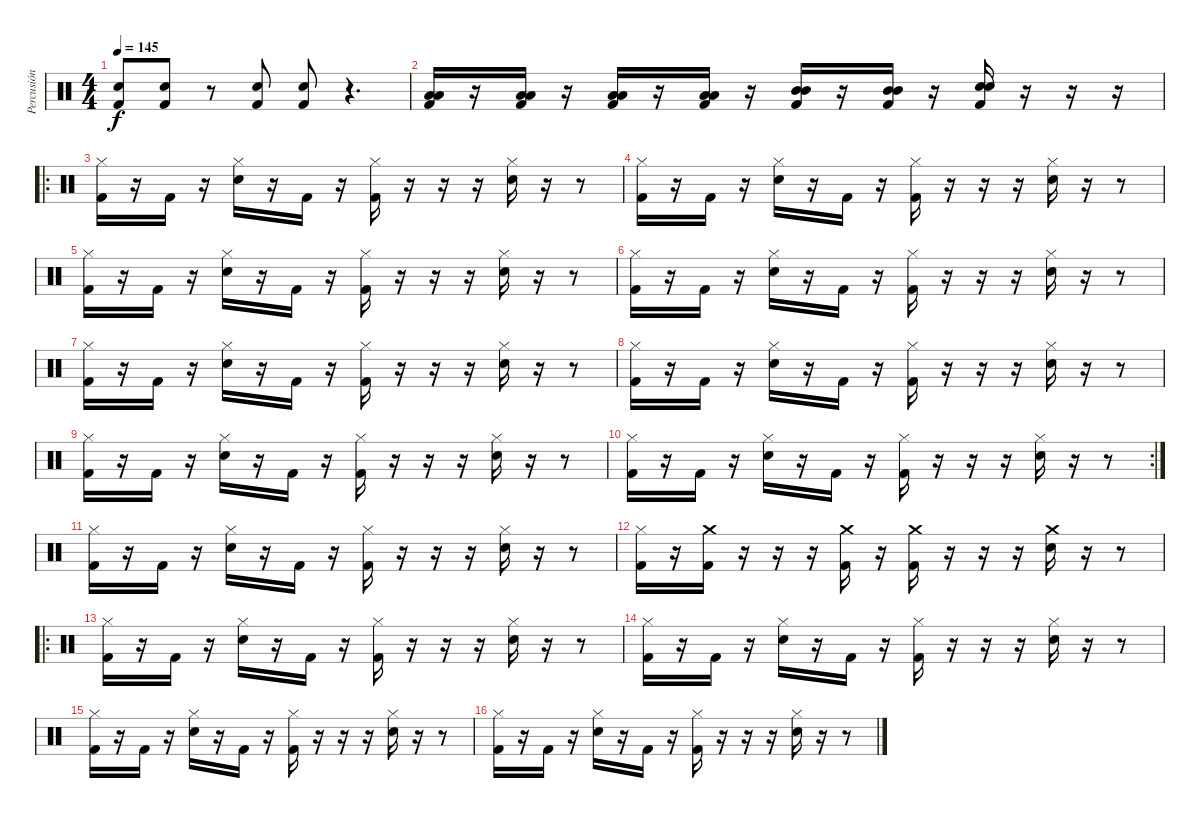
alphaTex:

\track ("Percusión" "Percusión") {solo instrument percussion}
\staff {score}
\articulation defaults
\ts (4 4)
\tempo 145
\clef neutral
\ks c
("Kick (hit) 2" "Electric Snare (hit)").8{dy f} ("Kick (hit) 2" "Electric Snare (hit)").8 r.8 ("Kick (hit) 2" "Electric Snare (hit)").8 ("Kick (hit) 2" "Electric Snare (hit)").8 r.4{d} |
("Kick (hit) 2" "Low Floor Tom (hit)" "Low Floor Tom (hit)").16 r.16 ("Kick (hit) 2" "Low Floor Tom (hit)" "Low Floor Tom (hit)").16 r.16 ("Kick (hit) 2" "Low Tom (hit)" "Low Tom (hit)").16 r.16 ("Kick (hit) 2" "Low Tom (hit)" "Low Tom (hit)").16 r.16 ("Kick (hit) 2" "Mid Tom (hit)" "Mid Tom (hit)").16 r.16 ("Kick (hit) 2" "Mid Tom (hit)" "Mid Tom (hit)").16 r.16 ("Kick (hit) 2" "Electric Snare (hit)" "Electric Snare (hit)").16 r.16 r.16 r.16 |
\ro
("Kick (hit) 2" "Hi-Hat (closed)").16 r.16 "Kick (hit) 2".16 r.16 ("Electric Snare (hit)" "Hi-Hat (closed)").16 r.16 "Kick (hit) 2".16 r.16 ("Kick (hit) 2" "Hi-Hat (closed)").16 r.16 r.16 r.16 ("Electric Snare (hit)" "Hi-Hat (closed)").16 r.16 r.8 |
("Kick (hit) 2" "Hi-Hat (closed)").16 r.16 "Kick (hit) 2".16 r.16 ("Electric Snare (hit)" "Hi-Hat (closed)").16 r.16 "Kick (hit) 2".16 r.16 ("Kick (hit) 2" "Hi-Hat (closed)").16 r.16 r.16 r.16 ("Electric Snare (hit)" "Hi-Hat (closed)").16 r.16 r.8 |
("Kick (hit) 2" "Hi-Hat (closed)").16 r.16 "Kick (hit) 2".16 r.16 ("Electric Snare (hit)" "Hi-Hat (closed)").16 r.16 "Kick (hit) 2".16 r.16 ("Kick (hit) 2" "Hi-Hat (closed)").16 r.16 r.16 r.16 ("Electric Snare (hit)" "Hi-Hat (closed)").16 r.16 r.8 |
("Kick (hit) 2" "Hi-Hat (closed)").16 r.16 "Kick (hit) 2".16 r.16 ("Electric Snare (hit)" "Hi-Hat (closed)").16 r.16 "Kick (hit) 2".16 r.16 ("Kick (hit) 2" "Hi-Hat (closed)").16 r.16 r.16 r.16 ("Electric Snare (hit)" "Hi-Hat (closed)").16 r.16 r.8 |
("Kick (hit) 2" "Hi-Hat (closed)").16 r.16 "Kick (hit) 2".16 r.16 ("Electric Snare (hit)" "Hi-Hat (closed)").16 r.16 "Kick (hit) 2".16 r.16 ("Kick (hit) 2" "Hi-Hat (closed)").16 r.16 r.16 r.16 ("Electric Snare (hit)" "Hi-Hat (closed)").16 r.16 r.8 |
("Kick (hit) 2" "Hi-Hat (closed)").16 r.16 "Kick (hit) 2".16 r.16 ("Electric Snare (hit)" "Hi-Hat (closed)").16 r.16 "Kick (hit) 2".16 r.16 ("Kick (hit) 2" "Hi-Hat (closed)").16 r.16 r.16 r.16 ("Electric Snare (hit)" "Hi-Hat (closed)").16 r.16 r.8 |
("Kick (hit) 2" "Hi-Hat (closed)").16 r.16 "Kick (hit) 2".16 r.16 ("Electric Snare (hit)" "Hi-Hat (closed)").16 r.16 "Kick (hit) 2".16 r.16 ("Kick (hit) 2" "Hi-Hat (closed)").16 r.16 r.16 r.16 ("Electric Snare (hit)" "Hi-Hat (closed)").16 r.16 r.8 |
\rc 2
("Kick (hit) 2" "Hi-Hat (closed)").16 r.16 "Kick (hit) 2".16 r.16 ("Electric Snare (hit)" "Hi-Hat (closed)").16 r.16 "Kick (hit) 2".16 r.16 ("Kick (hit) 2" "Hi-Hat (closed)").16 r.16 r.16 r.16 ("Electric Snare (hit)" "Hi-Hat (closed)").16 r.16 r.8 |
("Kick (hit) 2" "Hi-Hat (closed)").16 r.16 "Kick (hit) 2".16 r.16 ("Electric Snare (hit)" "Hi-Hat (closed)").16 r.16 "Kick (hit) 2".16 r.16 ("Kick (hit) 2" "Hi-Hat (closed)").16 r.16 r.16 r.16 ("Electric Snare (hit)" "Hi-Hat (closed)").16 r.16 r.8 |
("Kick (hit) 2" "Hi-Hat (closed)").16 r.16 ("Kick (hit) 2" "Crash medium (hit)").16 r.16 r.16 r.16 ("Kick (hit) 2" "Crash medium (hit)").16 r.16 ("Kick (hit) 2" "Crash medium (hit)").16 r.16 r.16 r.16 ("Electric Snare (hit)" "Crash medium (hit)").16 r.16 r.8 |
\ro
("Kick (hit) 2" "Hi-Hat (closed)").16 r.16 "Kick (hit) 2".16 r.16 ("Electric Snare (hit)" "Hi-Hat (closed)").16 r.16 "Kick (hit) 2".16 r.16 ("Kick (hit) 2" "Hi-Hat (closed)").16 r.16 r.16 r.16 ("Electric Snare (hit)" "Hi-Hat (closed)").16 r.16 r.8 |
("Kick (hit) 2" "Hi-Hat (closed)").16 r.16 "Kick (hit) 2".16 r.16 ("Electric Snare (hit)" "Hi-Hat (closed)").16 r.16 "Kick (hit) 2".16 r.16 ("Kick (hit) 2" "Hi-Hat (closed)").16 r.16 r.16 r.16 ("Electric Snare (hit)" "Hi-Hat (closed)").16 r.16 r.8 |
("Kick (hit) 2" "Hi-Hat (closed)").16 r.16 "Kick (hit) 2".16 r.16 ("Electric Snare (hit)" "Hi-Hat (closed)").16 r.16 "Kick (hit) 2".16 r.16 ("Kick (hit) 2" "Hi-Hat (closed)").16 r.16 r.16 r.16 ("Electric Snare (hit)" "Hi-Hat (closed)").16 r.16 r.8 |
("Kick (hit) 2" "Hi-Hat (closed)").16 r.16 "Kick (hit) 2".16 r.16 ("Electric Snare (hit)" "Hi-Hat (closed)").16 r.16 "Kick (hit) 2".16 r.16 ("Kick (hit) 2" "Hi-Hat (closed)").16 r.16 r.16 r.16 ("Electric Snare (hit)" "Hi-Hat (closed)").16 r.16 r.8
